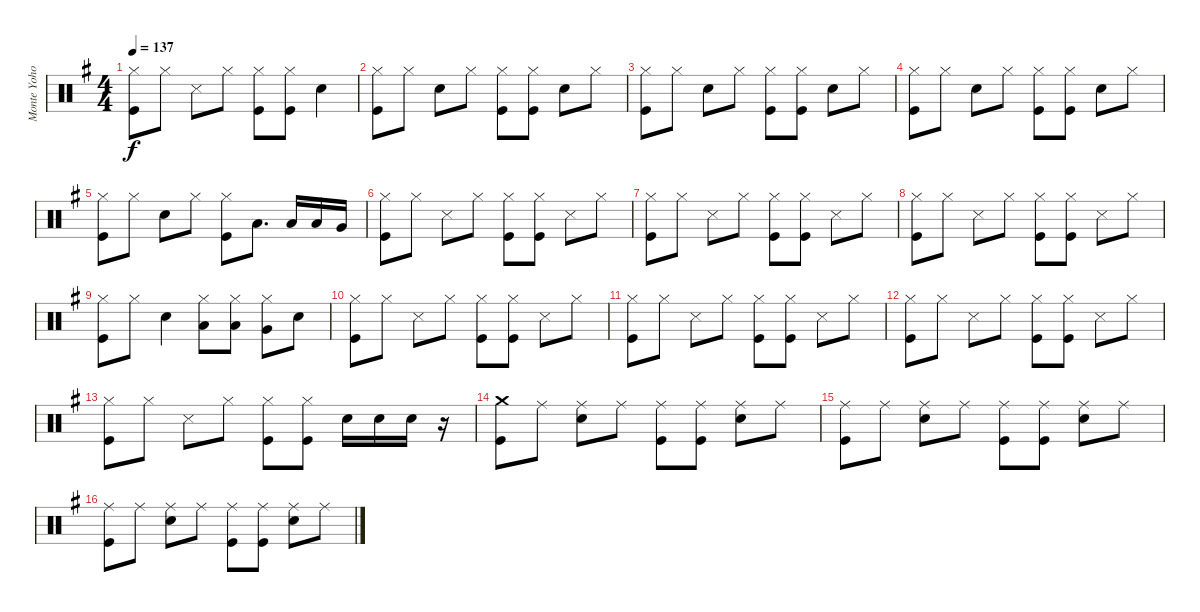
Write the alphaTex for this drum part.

\track ("Monte Yoho Drums" "Monte Yoho") {instrument percussion}
\staff {score}
\articulation defaults
\ts (4 4)
\tempo 137
\clef neutral
\ks g
("Hi-Hat (closed)" "Kick (hit)").8{dy f} "Hi-Hat (closed)".8 "Snare (side stick) 3".8 "Hi-Hat (closed)".8 ("Hi-Hat (closed)" "Kick (hit)").8 ("Hi-Hat (closed)" "Kick (hit)").8 "Snare (hit) 2".4 |
("Hi-Hat (closed)" "Kick (hit)").8 "Hi-Hat (closed)".8 "Snare (hit) 2".8 "Hi-Hat (closed)".8 ("Hi-Hat (closed)" "Kick (hit)").8 ("Hi-Hat (closed)" "Kick (hit)").8 "Snare (hit) 2".8 "Hi-Hat (closed)".8 |
("Hi-Hat (closed)" "Kick (hit)").8 "Hi-Hat (closed)".8 "Snare (hit) 2".8 "Hi-Hat (closed)".8 ("Hi-Hat (closed)" "Kick (hit)").8 ("Hi-Hat (closed)" "Kick (hit)").8 "Snare (hit) 2".8 "Hi-Hat (closed)".8 |
("Hi-Hat (closed)" "Kick (hit)").8 "Hi-Hat (closed)".8 "Snare (hit) 2".8 "Hi-Hat (closed)".8 ("Hi-Hat (closed)" "Kick (hit)").8 ("Hi-Hat (closed)" "Kick (hit)").8 "Snare (hit) 2".8 "Hi-Hat (closed)".8 |
("Hi-Hat (closed)" "Kick (hit)").8 "Hi-Hat (closed)".8 "Snare (hit) 2".8 "Hi-Hat (closed)".8 ("Hi-Hat (closed)" "Kick (hit)").8 "Low Tom (hit)".8{d} "Low Tom (hit)".16 "Low Tom (hit)".16 "Very Low Tom (hit)".16 |
("Hi-Hat (closed)" "Kick (hit)").8 "Hi-Hat (closed)".8 "Snare (side stick) 3".8 "Hi-Hat (closed)".8 ("Hi-Hat (closed)" "Kick (hit)").8 ("Hi-Hat (closed)" "Kick (hit)").8 "Snare (side stick) 3".8 "Hi-Hat (closed)".8 |
("Hi-Hat (closed)" "Kick (hit)").8 "Hi-Hat (closed)".8 "Snare (side stick) 3".8 "Hi-Hat (closed)".8 ("Hi-Hat (closed)" "Kick (hit)").8 ("Hi-Hat (closed)" "Kick (hit)").8 "Snare (side stick) 3".8 "Hi-Hat (closed)".8 |
("Hi-Hat (closed)" "Kick (hit)").8 "Hi-Hat (closed)".8 "Snare (side stick) 3".8 "Hi-Hat (closed)".8 ("Hi-Hat (closed)" "Kick (hit)").8 ("Hi-Hat (closed)" "Kick (hit)").8 "Snare (side stick) 3".8 "Hi-Hat (closed)".8 |
("Hi-Hat (closed)" "Kick (hit)").8 "Hi-Hat (closed)".8 "Snare (hit) 2".4 ("Hi-Hat (closed)" "Low Tom (hit)").8 ("Hi-Hat (closed)" "Low Tom (hit)").8 ("Hi-Hat (closed)" "Very Low Tom (hit)").8 "Snare (hit) 2".8 |
("Hi-Hat (closed)" "Kick (hit)").8 "Hi-Hat (closed)".8 "Snare (side stick) 3".8 "Hi-Hat (closed)".8 ("Hi-Hat (closed)" "Kick (hit)").8 ("Hi-Hat (closed)" "Kick (hit)").8 "Snare (side stick) 3".8 "Hi-Hat (closed)".8 |
("Hi-Hat (closed)" "Kick (hit)").8 "Hi-Hat (closed)".8 "Snare (side stick) 3".8 "Hi-Hat (closed)".8 ("Hi-Hat (closed)" "Kick (hit)").8 ("Hi-Hat (closed)" "Kick (hit)").8 "Snare (side stick) 3".8 "Hi-Hat (closed)".8 |
("Hi-Hat (closed)" "Kick (hit)").8 "Hi-Hat (closed)".8 "Snare (side stick) 3".8 "Hi-Hat (closed)".8 ("Hi-Hat (closed)" "Kick (hit)").8 ("Hi-Hat (closed)" "Kick (hit)").8 "Snare (side stick) 3".8 "Hi-Hat (closed)".8 |
("Hi-Hat (closed)" "Kick (hit)").8 "Hi-Hat (closed)".8 "Snare (side stick) 3".8 "Hi-Hat (closed)".8 ("Hi-Hat (closed)" "Kick (hit)").8 ("Hi-Hat (closed)" "Kick (hit)").8 "Snare (hit) 2".16 "Snare (hit) 2".16 "Snare (hit) 2".16 r.16 |
("Crash medium (hit)" "Kick (hit)").8 "Ride (middle)".8 ("Ride (middle)" "Snare (hit) 2").8 "Ride (middle)".8 ("Ride (middle)" "Kick (hit)").8 ("Ride (middle)" "Kick (hit)").8 ("Ride (middle)" "Snare (hit) 2").8 "Ride (middle)".8 |
("Ride (middle)" "Kick (hit)").8 "Ride (middle)".8 ("Ride (middle)" "Snare (hit) 2").8 "Ride (middle)".8 ("Ride (middle)" "Kick (hit)").8 ("Ride (middle)" "Kick (hit)").8 ("Ride (middle)" "Snare (hit) 2").8 "Ride (middle)".8 |
("Ride (middle)" "Kick (hit)").8 "Ride (middle)".8 ("Ride (middle)" "Snare (hit) 2").8 "Ride (middle)".8 ("Ride (middle)" "Kick (hit)").8 ("Ride (middle)" "Kick (hit)").8 ("Ride (middle)" "Snare (hit) 2").8 "Ride (middle)".8
